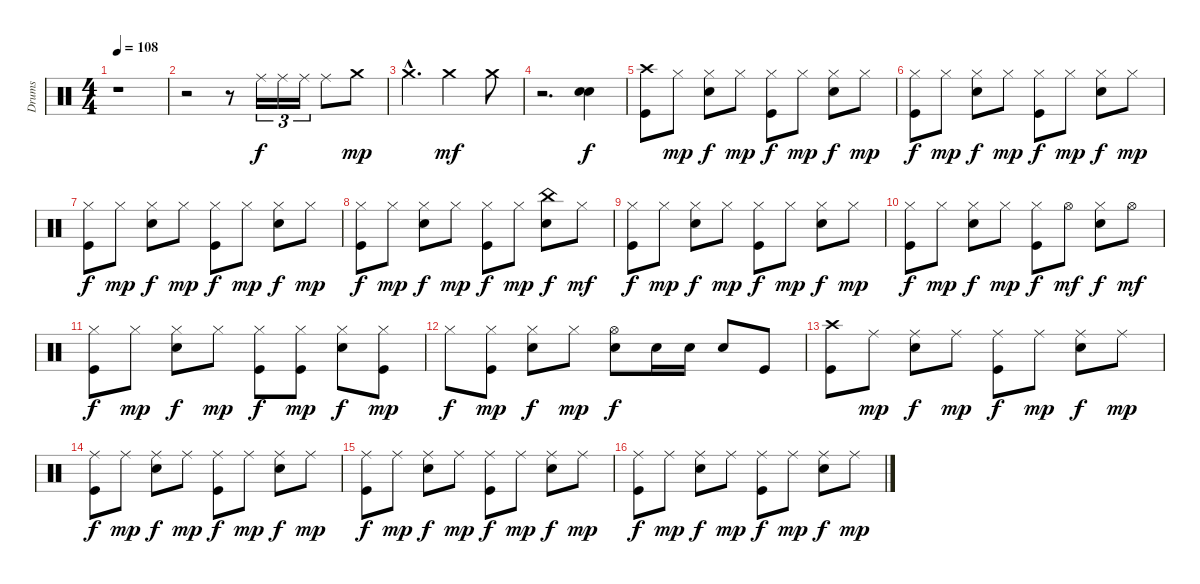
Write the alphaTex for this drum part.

\track ("Drums" "Drums") {instrument percussion}
\staff {score}
\articulation defaults
\ts (4 4)
\tempo 108
\clef neutral
\ks c
r.1{dy f} |
r.2 r.8 "Ride (middle)".16{tu (3 2)} "Ride (middle)".16{tu (3 2)} "Ride (middle)".16{tu (3 2)} "Ride (middle)".8 "Crash medium (hit)".8{dy mp} |
"Crash medium (hit)"{hac}.4{d} "Crash medium (hit)".2{dy mf} "Crash medium (hit)".8 |
r.2{d} ("Snare (hit) 2" "Electric Snare (hit)").4{dy f} |
("Crash high (hit)" "Kick (hit)").8 "Hi-Hat (closed)".8{dy mp} ("Hi-Hat (closed)" "Snare (hit) 2").8{dy f} "Hi-Hat (closed)".8{dy mp} ("Hi-Hat (closed)" "Kick (hit)").8{dy f} "Hi-Hat (closed)".8{dy mp} ("Hi-Hat (closed)" "Snare (hit) 2").8{dy f} "Hi-Hat (closed)".8{dy mp} |
("Hi-Hat (closed)" "Kick (hit)").8{dy f} "Hi-Hat (closed)".8{dy mp} ("Hi-Hat (closed)" "Snare (hit) 2").8{dy f} "Hi-Hat (closed)".8{dy mp} ("Hi-Hat (closed)" "Kick (hit)").8{dy f} "Hi-Hat (closed)".8{dy mp} ("Hi-Hat (closed)" "Snare (hit) 2").8{dy f} "Hi-Hat (closed)".8{dy mp} |
("Hi-Hat (closed)" "Kick (hit)").8{dy f} "Hi-Hat (closed)".8{dy mp} ("Hi-Hat (closed)" "Snare (hit) 2").8{dy f} "Hi-Hat (closed)".8{dy mp} ("Hi-Hat (closed)" "Kick (hit)").8{dy f} "Hi-Hat (closed)".8{dy mp} ("Hi-Hat (closed)" "Snare (hit) 2").8{dy f} "Hi-Hat (closed)".8{dy mp} |
("Hi-Hat (closed)" "Kick (hit)").8{dy f} "Hi-Hat (closed)".8{dy mp} ("Hi-Hat (closed)" "Snare (hit) 2").8{dy f} "Hi-Hat (closed)".8{dy mp} ("Hi-Hat (closed)" "Kick (hit)").8{dy f} "Hi-Hat (closed)".8{dy mp} ("China (hit)" "Snare (hit) 2").8{dy f} "Hi-Hat (closed)".8{dy mf} |
("Hi-Hat (closed)" "Kick (hit)").8{dy f} "Hi-Hat (closed)".8{dy mp} ("Hi-Hat (closed)" "Snare (hit) 2").8{dy f} "Hi-Hat (closed)".8{dy mp} ("Hi-Hat (closed)" "Kick (hit)").8{dy f} "Hi-Hat (closed)".8{dy mp} ("Hi-Hat (closed)" "Snare (hit) 2").8{dy f} "Hi-Hat (closed)".8{dy mp} |
("Hi-Hat (closed)" "Kick (hit)").8{dy f} "Hi-Hat (closed)".8{dy mp} ("Hi-Hat (closed)" "Snare (hit) 2").8{dy f} "Hi-Hat (closed)".8{dy mp} ("Hi-Hat (closed)" "Kick (hit)").8{dy f} "Hi-Hat (open)".8{dy mf} ("Hi-Hat (closed)" "Snare (hit) 2").8{dy f} "Hi-Hat (open)".8{dy mf} |
("Hi-Hat (closed)" "Kick (hit)").8{dy f} "Hi-Hat (closed)".8{dy mp} ("Hi-Hat (closed)" "Snare (hit) 2").8{dy f} "Hi-Hat (closed)".8{dy mp} ("Hi-Hat (closed)" "Kick (hit)").8{dy f} ("Hi-Hat (closed)" "Kick (hit)").8{dy mp} ("Hi-Hat (closed)" "Snare (hit) 2").8{dy f} ("Hi-Hat (closed)" "Kick (hit)").8{dy mp} |
"Hi-Hat (closed)".8{dy f} ("Hi-Hat (closed)" "Kick (hit)").8{dy mp} ("Hi-Hat (closed)" "Snare (hit) 2").8{dy f} "Hi-Hat (closed)".8{dy mp} ("Hi-Hat (open)" "Snare (hit) 2").8{dy f} "Snare (hit) 2".16 "Snare (hit) 2".16 "Snare (hit) 2".8 "Kick (hit)".8 |
("Crash high (hit)" "Kick (hit)").8 "Ride (middle)".8{dy mp} ("Ride (middle)" "Snare (hit) 2").8{dy f} "Ride (middle)".8{dy mp} ("Ride (middle)" "Kick (hit)").8{dy f} "Ride (middle)".8{dy mp} ("Ride (middle)" "Snare (hit) 2").8{dy f} "Ride (middle)".8{dy mp} |
("Ride (middle)" "Kick (hit)").8{dy f} "Ride (middle)".8{dy mp} ("Ride (middle)" "Snare (hit) 2").8{dy f} "Ride (middle)".8{dy mp} ("Ride (middle)" "Kick (hit)").8{dy f} "Ride (middle)".8{dy mp} ("Ride (middle)" "Snare (hit) 2").8{dy f} "Ride (middle)".8{dy mp} |
("Ride (middle)" "Kick (hit)").8{dy f} "Ride (middle)".8{dy mp} ("Ride (middle)" "Snare (hit) 2").8{dy f} "Ride (middle)".8{dy mp} ("Ride (middle)" "Kick (hit)").8{dy f} "Ride (middle)".8{dy mp} ("Ride (middle)" "Snare (hit) 2").8{dy f} "Ride (middle)".8{dy mp} |
("Ride (middle)" "Kick (hit)").8{dy f} "Ride (middle)".8{dy mp} ("Ride (middle)" "Snare (hit) 2").8{dy f} "Ride (middle)".8{dy mp} ("Ride (middle)" "Kick (hit)").8{dy f} "Ride (middle)".8{dy mp} ("Ride (middle)" "Snare (hit) 2").8{dy f} "Ride (middle)".8{dy mp}
